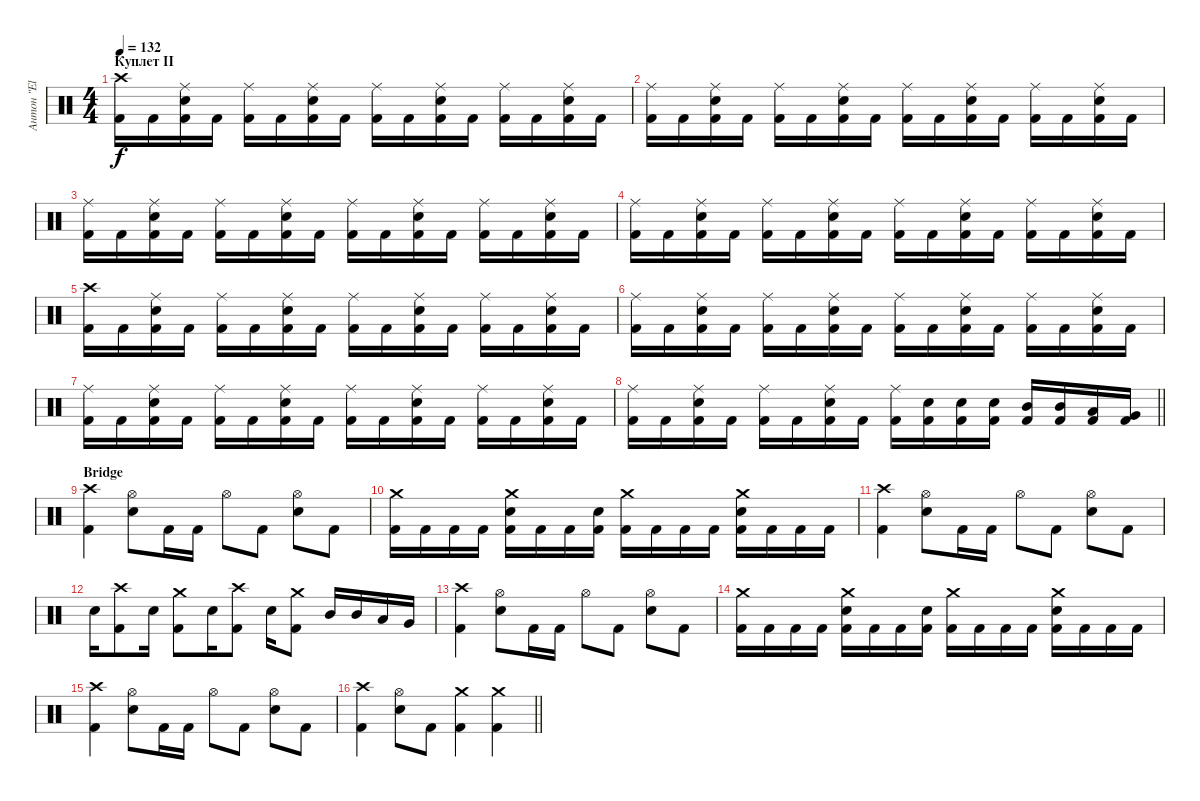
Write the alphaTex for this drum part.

\track ("Антон \"El Bastardo\" Смольянин" "Антон \"El ") {instrument percussion}
\staff {score}
\articulation defaults
\ts (4 4)
\section ("" "Куплет II")
\tempo 132
\clef neutral
\ks c
("Crash high (hit)" "Kick (hit) 2").16{dy f} "Kick (hit) 2".16 ("Ride (middle)" "Electric Snare (hit)" "Kick (hit) 2").16 "Kick (hit) 2".16 ("Ride (middle)" "Kick (hit) 2").16 "Kick (hit) 2".16 ("Ride (middle)" "Electric Snare (hit)" "Kick (hit) 2").16 "Kick (hit) 2".16 ("Ride (middle)" "Kick (hit) 2").16 "Kick (hit) 2".16 ("Ride (middle)" "Electric Snare (hit)" "Kick (hit) 2").16 "Kick (hit) 2".16 ("Ride (middle)" "Kick (hit) 2").16 "Kick (hit) 2".16 ("Ride (middle)" "Electric Snare (hit)" "Kick (hit) 2").16 "Kick (hit) 2".16 |
("Ride (middle)" "Kick (hit) 2").16 "Kick (hit) 2".16 ("Ride (middle)" "Electric Snare (hit)" "Kick (hit) 2").16 "Kick (hit) 2".16 ("Ride (middle)" "Kick (hit) 2").16 "Kick (hit) 2".16 ("Ride (middle)" "Electric Snare (hit)" "Kick (hit) 2").16 "Kick (hit) 2".16 ("Ride (middle)" "Kick (hit) 2").16 "Kick (hit) 2".16 ("Ride (middle)" "Electric Snare (hit)" "Kick (hit) 2").16 "Kick (hit) 2".16 ("Ride (middle)" "Kick (hit) 2").16 "Kick (hit) 2".16 ("Ride (middle)" "Electric Snare (hit)" "Kick (hit) 2").16 "Kick (hit) 2".16 |
("Ride (middle)" "Kick (hit) 2").16 "Kick (hit) 2".16 ("Ride (middle)" "Electric Snare (hit)" "Kick (hit) 2").16 "Kick (hit) 2".16 ("Ride (middle)" "Kick (hit) 2").16 "Kick (hit) 2".16 ("Ride (middle)" "Electric Snare (hit)" "Kick (hit) 2").16 "Kick (hit) 2".16 ("Ride (middle)" "Kick (hit) 2").16 "Kick (hit) 2".16 ("Ride (middle)" "Electric Snare (hit)" "Kick (hit) 2").16 "Kick (hit) 2".16 ("Ride (middle)" "Kick (hit) 2").16 "Kick (hit) 2".16 ("Ride (middle)" "Electric Snare (hit)" "Kick (hit) 2").16 "Kick (hit) 2".16 |
("Ride (middle)" "Kick (hit) 2").16 "Kick (hit) 2".16 ("Ride (middle)" "Electric Snare (hit)" "Kick (hit) 2").16 "Kick (hit) 2".16 ("Ride (middle)" "Kick (hit) 2").16 "Kick (hit) 2".16 ("Ride (middle)" "Electric Snare (hit)" "Kick (hit) 2").16 "Kick (hit) 2".16 ("Ride (middle)" "Kick (hit) 2").16 "Kick (hit) 2".16 ("Ride (middle)" "Electric Snare (hit)" "Kick (hit) 2").16 "Kick (hit) 2".16 ("Ride (middle)" "Kick (hit) 2").16 "Kick (hit) 2".16 ("Ride (middle)" "Electric Snare (hit)" "Kick (hit) 2").16 "Kick (hit) 2".16 |
("Crash high (hit)" "Kick (hit) 2").16 "Kick (hit) 2".16 ("Ride (middle)" "Electric Snare (hit)" "Kick (hit) 2").16 "Kick (hit) 2".16 ("Ride (middle)" "Kick (hit) 2").16 "Kick (hit) 2".16 ("Ride (middle)" "Electric Snare (hit)" "Kick (hit) 2").16 "Kick (hit) 2".16 ("Ride (middle)" "Kick (hit) 2").16 "Kick (hit) 2".16 ("Ride (middle)" "Electric Snare (hit)" "Kick (hit) 2").16 "Kick (hit) 2".16 ("Ride (middle)" "Kick (hit) 2").16 "Kick (hit) 2".16 ("Ride (middle)" "Electric Snare (hit)" "Kick (hit) 2").16 "Kick (hit) 2".16 |
("Ride (middle)" "Kick (hit) 2").16 "Kick (hit) 2".16 ("Ride (middle)" "Electric Snare (hit)" "Kick (hit) 2").16 "Kick (hit) 2".16 ("Ride (middle)" "Kick (hit) 2").16 "Kick (hit) 2".16 ("Ride (middle)" "Electric Snare (hit)" "Kick (hit) 2").16 "Kick (hit) 2".16 ("Ride (middle)" "Kick (hit) 2").16 "Kick (hit) 2".16 ("Ride (middle)" "Electric Snare (hit)" "Kick (hit) 2").16 "Kick (hit) 2".16 ("Ride (middle)" "Kick (hit) 2").16 "Kick (hit) 2".16 ("Ride (middle)" "Electric Snare (hit)" "Kick (hit) 2").16 "Kick (hit) 2".16 |
("Ride (middle)" "Kick (hit) 2").16 "Kick (hit) 2".16 ("Ride (middle)" "Electric Snare (hit)" "Kick (hit) 2").16 "Kick (hit) 2".16 ("Ride (middle)" "Kick (hit) 2").16 "Kick (hit) 2".16 ("Ride (middle)" "Electric Snare (hit)" "Kick (hit) 2").16 "Kick (hit) 2".16 ("Ride (middle)" "Kick (hit) 2").16 "Kick (hit) 2".16 ("Ride (middle)" "Electric Snare (hit)" "Kick (hit) 2").16 "Kick (hit) 2".16 ("Ride (middle)" "Kick (hit) 2").16 "Kick (hit) 2".16 ("Ride (middle)" "Electric Snare (hit)" "Kick (hit) 2").16 "Kick (hit) 2".16 |
\barLineRight lightlight
("Ride (middle)" "Kick (hit) 2").16 "Kick (hit) 2".16 ("Ride (middle)" "Electric Snare (hit)" "Kick (hit) 2").16 "Kick (hit) 2".16 ("Ride (middle)" "Kick (hit) 2").16 "Kick (hit) 2".16 ("Ride (middle)" "Electric Snare (hit)" "Kick (hit) 2").16 "Kick (hit) 2".16 ("Ride (middle)" "Kick (hit) 2").16 ("Electric Snare (hit)" "Kick (hit) 2").16 ("Electric Snare (hit)" "Kick (hit) 2").16 ("Electric Snare (hit)" "Kick (hit) 2").16 ("Mid Tom (hit)" "Kick (hit) 2").16 ("Mid Tom (hit)" "Kick (hit) 2").16 ("Low Tom (hit)" "Kick (hit) 2").16 ("Very Low Tom (hit)" "Kick (hit) 2").16 |
\section ("" "Bridge")
("Crash high (hit)" "Kick (hit) 2").4 ("Hi-Hat (open)" "Electric Snare (hit)").8 "Kick (hit) 2".16 "Kick (hit) 2".16 "Hi-Hat (open)".8 "Kick (hit) 2".8 ("Hi-Hat (open)" "Electric Snare (hit)").8 "Kick (hit) 2".8 |
("Crash medium (hit)" "Kick (hit) 2").16 "Kick (hit) 2".16 "Kick (hit) 2".16 "Kick (hit) 2".16 ("Crash medium (hit)" "Electric Snare (hit)" "Kick (hit) 2").16 "Kick (hit) 2".16 "Kick (hit) 2".16 ("Electric Snare (hit)" "Kick (hit) 2").16 ("Crash medium (hit)" "Kick (hit) 2").16 "Kick (hit) 2".16 "Kick (hit) 2".16 "Kick (hit) 2".16 ("Crash medium (hit)" "Electric Snare (hit)" "Kick (hit) 2").16 "Kick (hit) 2".16 "Kick (hit) 2".16 "Kick (hit) 2".16 |
("Crash high (hit)" "Kick (hit) 2").4 ("Hi-Hat (open)" "Electric Snare (hit)").8 "Kick (hit) 2".16 "Kick (hit) 2".16 "Hi-Hat (open)".8 "Kick (hit) 2".8 ("Hi-Hat (open)" "Electric Snare (hit)").8 "Kick (hit) 2".8 |
"Electric Snare (hit)".16 ("Crash high (hit)" "Kick (hit) 2").8 "Electric Snare (hit)".16 ("Crash medium (hit)" "Kick (hit) 2").8 "Electric Snare (hit)".16 ("Crash high (hit)" "Kick (hit) 2").8 "Electric Snare (hit)".16 ("Crash medium (hit)" "Kick (hit) 2").8 "Mid Tom (hit)".16 "Mid Tom (hit)".16 "Low Tom (hit)".16 "Very Low Tom (hit)".16 |
("Crash high (hit)" "Kick (hit) 2").4 ("Hi-Hat (open)" "Electric Snare (hit)").8 "Kick (hit) 2".16 "Kick (hit) 2".16 "Hi-Hat (open)".8 "Kick (hit) 2".8 ("Hi-Hat (open)" "Electric Snare (hit)").8 "Kick (hit) 2".8 |
("Crash medium (hit)" "Kick (hit) 2").16 "Kick (hit) 2".16 "Kick (hit) 2".16 "Kick (hit) 2".16 ("Crash medium (hit)" "Electric Snare (hit)" "Kick (hit) 2").16 "Kick (hit) 2".16 "Kick (hit) 2".16 ("Electric Snare (hit)" "Kick (hit) 2").16 ("Crash medium (hit)" "Kick (hit) 2").16 "Kick (hit) 2".16 "Kick (hit) 2".16 "Kick (hit) 2".16 ("Crash medium (hit)" "Electric Snare (hit)" "Kick (hit) 2").16 "Kick (hit) 2".16 "Kick (hit) 2".16 "Kick (hit) 2".16 |
("Crash high (hit)" "Kick (hit) 2").4 ("Hi-Hat (open)" "Electric Snare (hit)").8 "Kick (hit) 2".16 "Kick (hit) 2".16 "Hi-Hat (open)".8 "Kick (hit) 2".8 ("Hi-Hat (open)" "Electric Snare (hit)").8 "Kick (hit) 2".8 |
\barLineRight lightlight
("Crash high (hit)" "Kick (hit) 2").4 ("Hi-Hat (open)" "Electric Snare (hit)").8 "Kick (hit) 2".8 ("Crash medium (hit)" "Kick (hit) 2").4 ("Crash medium (hit)" "Kick (hit) 2").4
